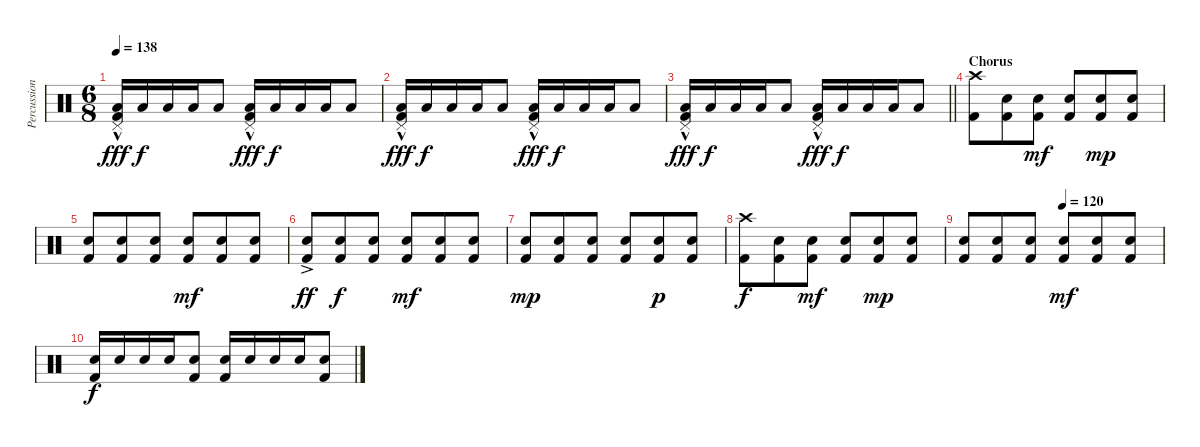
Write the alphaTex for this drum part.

\track ("Percussion" "Percussion") {instrument percussion}
\staff {score}
\articulation defaults
\ts (6 8)
\tempo 138
\clef neutral
\ks c
("Pedal Hi-Hat (hit)"{hac} "Low Floor Tom (hit)" "Kick (hit) 2").16{dy fff} "Low Floor Tom (hit)".16{dy f} "Low Floor Tom (hit)".16 "Low Floor Tom (hit)".16 "Low Floor Tom (hit)".8 ("Pedal Hi-Hat (hit)"{hac} "Low Floor Tom (hit)" "Kick (hit) 2").16{dy fff} "Low Floor Tom (hit)".16{dy f} "Low Floor Tom (hit)".16 "Low Floor Tom (hit)".16 "Low Floor Tom (hit)".8 |
("Pedal Hi-Hat (hit)"{hac} "Low Floor Tom (hit)" "Kick (hit) 2").16{dy fff} "Low Floor Tom (hit)".16{dy f} "Low Floor Tom (hit)".16 "Low Floor Tom (hit)".16 "Low Floor Tom (hit)".8 ("Pedal Hi-Hat (hit)"{hac} "Low Floor Tom (hit)" "Kick (hit) 2").16{dy fff} "Low Floor Tom (hit)".16{dy f} "Low Floor Tom (hit)".16 "Low Floor Tom (hit)".16 "Low Floor Tom (hit)".8 |
\barLineRight lightlight
("Pedal Hi-Hat (hit)"{hac} "Low Floor Tom (hit)" "Kick (hit) 2").16{dy fff} "Low Floor Tom (hit)".16{dy f} "Low Floor Tom (hit)".16 "Low Floor Tom (hit)".16 "Low Floor Tom (hit)".8 ("Pedal Hi-Hat (hit)"{hac} "Low Floor Tom (hit)" "Kick (hit) 2").16{dy fff} "Low Floor Tom (hit)".16{dy f} "Low Floor Tom (hit)".16 "Low Floor Tom (hit)".16 "Low Floor Tom (hit)".8 |
\section ("" "Chorus")
("Crash high (hit)" "Kick (hit) 2").8 ("Electric Snare (hit)" "Kick (hit) 2").8 ("Electric Snare (hit)" "Kick (hit) 2").8{dy mf} ("Electric Snare (hit)" "Kick (hit) 2").8 ("Electric Snare (hit)" "Kick (hit) 2").8{dy mp} ("Electric Snare (hit)" "Kick (hit) 2").8 |
("Electric Snare (hit)" "Kick (hit) 2").8 ("Electric Snare (hit)" "Kick (hit) 2").8 ("Electric Snare (hit)" "Kick (hit) 2").8 ("Electric Snare (hit)" "Kick (hit) 2").8{dy mf} ("Electric Snare (hit)" "Kick (hit) 2").8 ("Electric Snare (hit)" "Kick (hit) 2").8 |
("Electric Snare (hit)"{ac} "Kick (hit) 2").8{dy ff} ("Electric Snare (hit)" "Kick (hit) 2").8{dy f} ("Electric Snare (hit)" "Kick (hit) 2").8 ("Electric Snare (hit)" "Kick (hit) 2").8{dy mf} ("Electric Snare (hit)" "Kick (hit) 2").8 ("Electric Snare (hit)" "Kick (hit) 2").8 |
("Electric Snare (hit)" "Kick (hit) 2").8{dy mp} ("Electric Snare (hit)" "Kick (hit) 2").8 ("Electric Snare (hit)" "Kick (hit) 2").8 ("Electric Snare (hit)" "Kick (hit) 2").8 ("Electric Snare (hit)" "Kick (hit) 2").8{dy p} ("Electric Snare (hit)" "Kick (hit) 2").8 |
("Crash high (hit)" "Kick (hit) 2").8{dy f} ("Electric Snare (hit)" "Kick (hit) 2").8 ("Electric Snare (hit)" "Kick (hit) 2").8{dy mf} ("Electric Snare (hit)" "Kick (hit) 2").8 ("Electric Snare (hit)" "Kick (hit) 2").8{dy mp} ("Electric Snare (hit)" "Kick (hit) 2").8 |
\tempo (120 0.5)
("Electric Snare (hit)" "Kick (hit) 2").8 ("Electric Snare (hit)" "Kick (hit) 2").8 ("Electric Snare (hit)" "Kick (hit) 2").8 ("Electric Snare (hit)" "Kick (hit) 2").8{dy mf} ("Electric Snare (hit)" "Kick (hit) 2").8 ("Electric Snare (hit)" "Kick (hit) 2").8 |
("Electric Snare (hit)" "Kick (hit) 2").16{dy f} "Electric Snare (hit)".16 "Electric Snare (hit)".16 "Electric Snare (hit)".16 ("Electric Snare (hit)" "Kick (hit) 2").8 ("Electric Snare (hit)" "Kick (hit) 2").16 "Electric Snare (hit)".16 "Electric Snare (hit)".16 "Electric Snare (hit)".16 ("Electric Snare (hit)" "Kick (hit) 2").8
